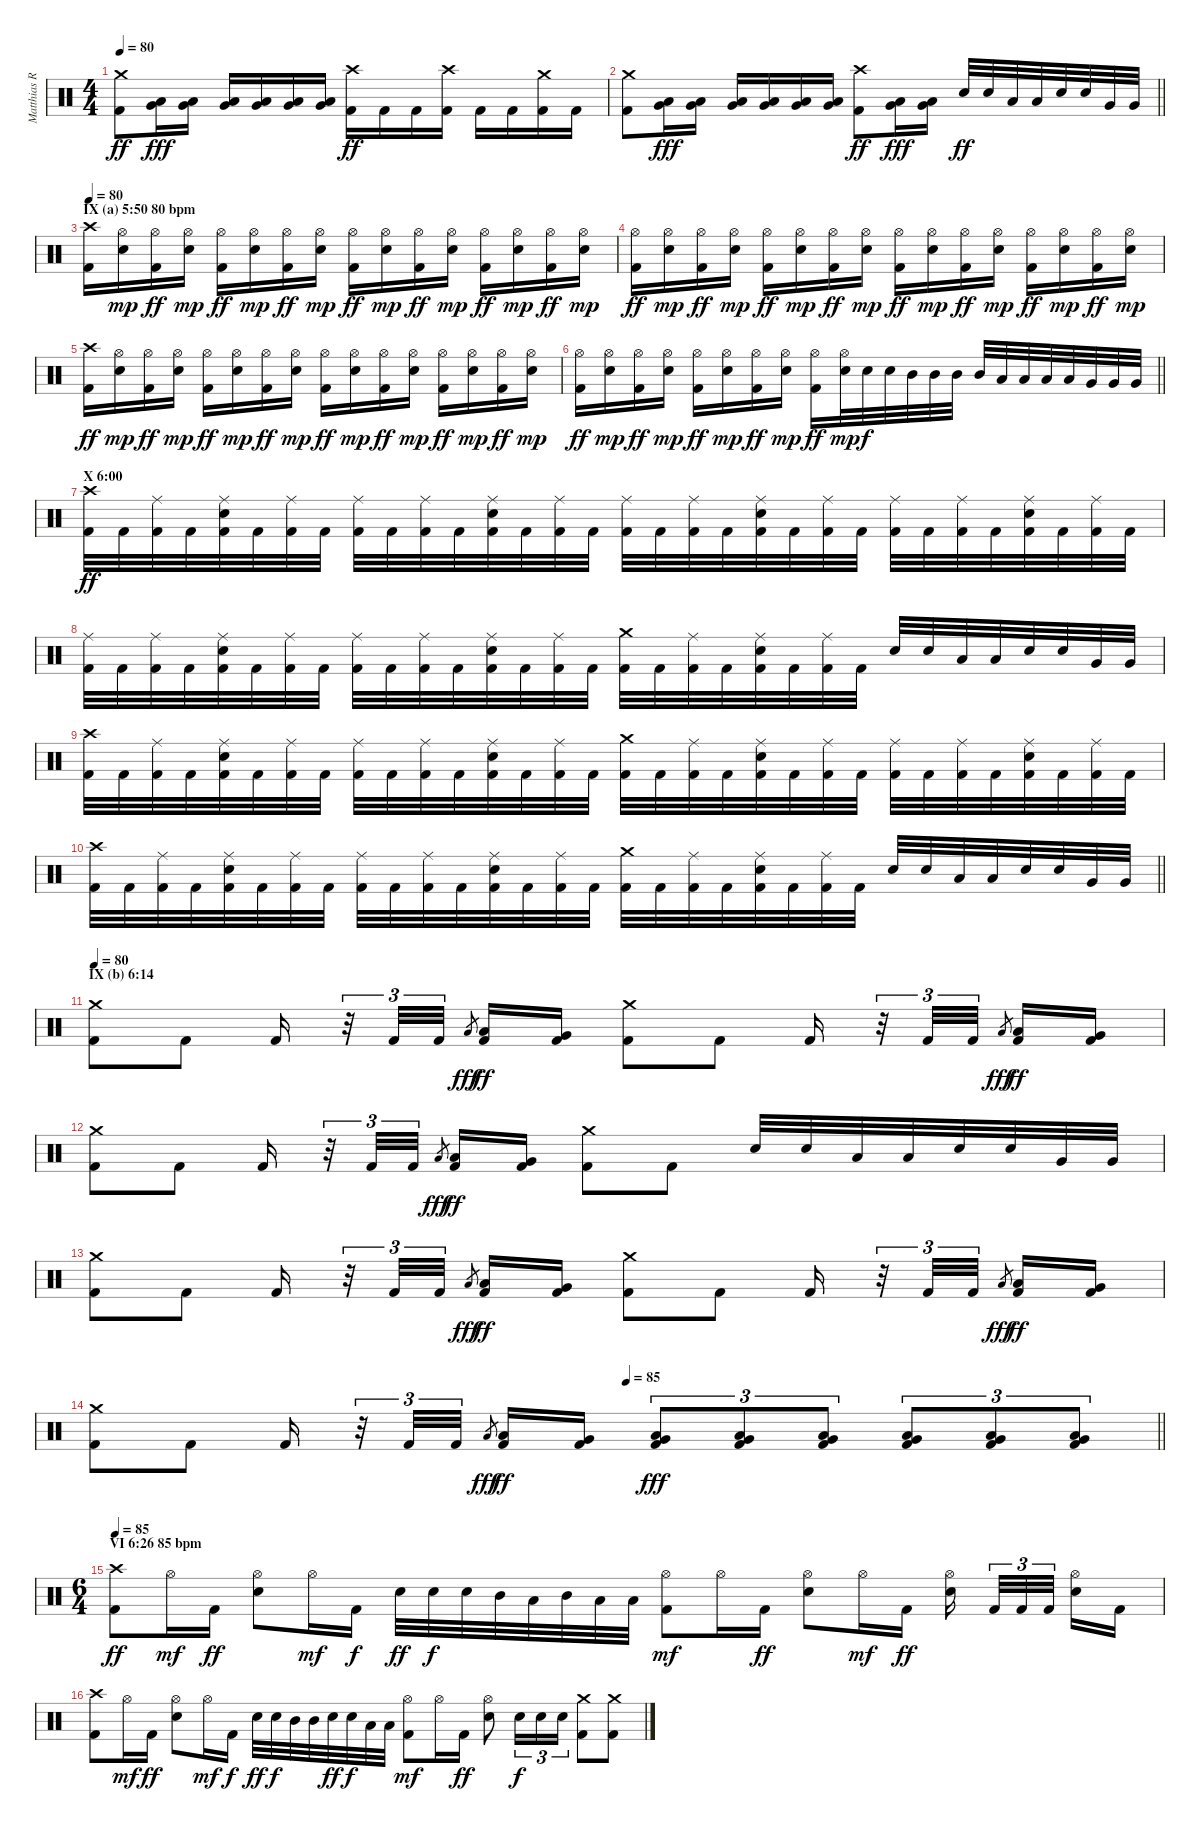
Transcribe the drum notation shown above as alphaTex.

\track ("Matthias R." "Matthias R") {instrument percussion}
\staff {score}
\articulation defaults
\ts (4 4)
\tempo 80
\clef neutral
\ks c
("Crash medium (hit)" "Kick (hit) 2").8{dy ff} ("Low Tom (hit)" "Very Low Tom (hit)").16{dy fff} ("Low Tom (hit)" "Very Low Tom (hit)").16 ("Low Tom (hit)" "Very Low Tom (hit)").16 ("Low Tom (hit)" "Very Low Tom (hit)").16 ("Low Tom (hit)" "Very Low Tom (hit)").16 ("Low Tom (hit)" "Very Low Tom (hit)").16 ("Crash high (hit)" "Kick (hit) 2").16{dy ff} "Kick (hit) 2".16 "Kick (hit) 2".16 ("Crash high (hit)" "Kick (hit) 2").16 "Kick (hit) 2".16 "Kick (hit) 2".16 ("Crash medium (hit)" "Kick (hit) 2").16 "Kick (hit) 2".16 |
\barLineRight lightlight
("Crash medium (hit)" "Kick (hit) 2").8 ("Low Tom (hit)" "Very Low Tom (hit)").16{dy fff} ("Low Tom (hit)" "Very Low Tom (hit)").16 ("Low Tom (hit)" "Very Low Tom (hit)").16 ("Low Tom (hit)" "Very Low Tom (hit)").16 ("Low Tom (hit)" "Very Low Tom (hit)").16 ("Low Tom (hit)" "Very Low Tom (hit)").16 ("Crash high (hit)" "Kick (hit) 2").8{dy ff} ("Low Tom (hit)" "Very Low Tom (hit)").16{dy fff} ("Low Tom (hit)" "Very Low Tom (hit)").16 "Electric Snare (hit)".32{dy ff} "Electric Snare (hit)".32 "Low Tom (hit)".32 "Low Tom (hit)".32 "Electric Snare (hit)".32 "Electric Snare (hit)".32 "Very Low Tom (hit)".32 "Very Low Tom (hit)".32 |
\section ("" "IX (a) 5:50 80 bpm")
\tempo 80
("Crash high (hit)" "Kick (hit) 2").16 ("Hi-Hat (open)" "Electric Snare (hit)").16{dy mp} ("Hi-Hat (open)" "Kick (hit) 2").16{dy ff} ("Hi-Hat (open)" "Electric Snare (hit)").16{dy mp} ("Hi-Hat (open)" "Kick (hit) 2").16{dy ff} ("Hi-Hat (open)" "Electric Snare (hit)").16{dy mp} ("Hi-Hat (open)" "Kick (hit) 2").16{dy ff} ("Hi-Hat (open)" "Electric Snare (hit)").16{dy mp} ("Hi-Hat (open)" "Kick (hit) 2").16{dy ff} ("Hi-Hat (open)" "Electric Snare (hit)").16{dy mp} ("Hi-Hat (open)" "Kick (hit) 2").16{dy ff} ("Hi-Hat (open)" "Electric Snare (hit)").16{dy mp} ("Hi-Hat (open)" "Kick (hit) 2").16{dy ff} ("Hi-Hat (open)" "Electric Snare (hit)").16{dy mp} ("Hi-Hat (open)" "Kick (hit) 2").16{dy ff} ("Hi-Hat (open)" "Electric Snare (hit)").16{dy mp} |
("Hi-Hat (open)" "Kick (hit) 2").16{dy ff} ("Hi-Hat (open)" "Electric Snare (hit)").16{dy mp} ("Hi-Hat (open)" "Kick (hit) 2").16{dy ff} ("Hi-Hat (open)" "Electric Snare (hit)").16{dy mp} ("Hi-Hat (open)" "Kick (hit) 2").16{dy ff} ("Hi-Hat (open)" "Electric Snare (hit)").16{dy mp} ("Hi-Hat (open)" "Kick (hit) 2").16{dy ff} ("Hi-Hat (open)" "Electric Snare (hit)").16{dy mp} ("Hi-Hat (open)" "Kick (hit) 2").16{dy ff} ("Hi-Hat (open)" "Electric Snare (hit)").16{dy mp} ("Hi-Hat (open)" "Kick (hit) 2").16{dy ff} ("Hi-Hat (open)" "Electric Snare (hit)").16{dy mp} ("Hi-Hat (open)" "Kick (hit) 2").16{dy ff} ("Hi-Hat (open)" "Electric Snare (hit)").16{dy mp} ("Hi-Hat (open)" "Kick (hit) 2").16{dy ff} ("Hi-Hat (open)" "Electric Snare (hit)").16{dy mp} |
("Crash high (hit)" "Kick (hit) 2").16{dy ff} ("Hi-Hat (open)" "Electric Snare (hit)").16{dy mp} ("Hi-Hat (open)" "Kick (hit) 2").16{dy ff} ("Hi-Hat (open)" "Electric Snare (hit)").16{dy mp} ("Hi-Hat (open)" "Kick (hit) 2").16{dy ff} ("Hi-Hat (open)" "Electric Snare (hit)").16{dy mp} ("Hi-Hat (open)" "Kick (hit) 2").16{dy ff} ("Hi-Hat (open)" "Electric Snare (hit)").16{dy mp} ("Hi-Hat (open)" "Kick (hit) 2").16{dy ff} ("Hi-Hat (open)" "Electric Snare (hit)").16{dy mp} ("Hi-Hat (open)" "Kick (hit) 2").16{dy ff} ("Hi-Hat (open)" "Electric Snare (hit)").16{dy mp} ("Hi-Hat (open)" "Kick (hit) 2").16{dy ff} ("Hi-Hat (open)" "Electric Snare (hit)").16{dy mp} ("Hi-Hat (open)" "Kick (hit) 2").16{dy ff} ("Hi-Hat (open)" "Electric Snare (hit)").16{dy mp} |
\barLineRight lightlight
("Hi-Hat (open)" "Kick (hit) 2").16{dy ff} ("Hi-Hat (open)" "Electric Snare (hit)").16{dy mp} ("Hi-Hat (open)" "Kick (hit) 2").16{dy ff} ("Hi-Hat (open)" "Electric Snare (hit)").16{dy mp} ("Hi-Hat (open)" "Kick (hit) 2").16{dy ff} ("Hi-Hat (open)" "Electric Snare (hit)").16{dy mp} ("Hi-Hat (open)" "Kick (hit) 2").16{dy ff} ("Hi-Hat (open)" "Electric Snare (hit)").16{dy mp} ("Hi-Hat (open)" "Kick (hit) 2").16{dy ff} ("Hi-Hat (open)" "Electric Snare (hit)").32{dy mp} "Electric Snare (hit)".32{dy f} "Electric Snare (hit)".32 "Mid Tom (hit)".32 "Mid Tom (hit)".32 "Mid Tom (hit)".32 "Mid Tom (hit)".32 "Low Tom (hit)".32 "Low Tom (hit)".32 "Low Tom (hit)".32 "Low Tom (hit)".32 "Very Low Tom (hit)".32 "Very Low Tom (hit)".32 "Very Low Tom (hit)".32 |
\section ("" "X 6:00")
("Crash high (hit)" "Kick (hit) 2").32{dy ff} "Kick (hit) 2".32 ("Ride (middle)" "Kick (hit) 2").32 "Kick (hit) 2".32 ("Ride (middle)" "Electric Snare (hit)" "Kick (hit) 2").32 "Kick (hit) 2".32 ("Ride (middle)" "Kick (hit) 2").32 "Kick (hit) 2".32 ("Ride (middle)" "Kick (hit) 2").32 "Kick (hit) 2".32 ("Ride (middle)" "Kick (hit) 2").32 "Kick (hit) 2".32 ("Ride (middle)" "Electric Snare (hit)" "Kick (hit) 2").32 "Kick (hit) 2".32 ("Ride (middle)" "Kick (hit) 2").32 "Kick (hit) 2".32 ("Ride (middle)" "Kick (hit) 2").32 "Kick (hit) 2".32 ("Ride (middle)" "Kick (hit) 2").32 "Kick (hit) 2".32 ("Ride (middle)" "Electric Snare (hit)" "Kick (hit) 2").32 "Kick (hit) 2".32 ("Ride (middle)" "Kick (hit) 2").32 "Kick (hit) 2".32 ("Ride (middle)" "Kick (hit) 2").32 "Kick (hit) 2".32 ("Ride (middle)" "Kick (hit) 2").32 "Kick (hit) 2".32 ("Ride (middle)" "Electric Snare (hit)" "Kick (hit) 2").32 "Kick (hit) 2".32 ("Ride (middle)" "Kick (hit) 2").32 "Kick (hit) 2".32 |
("Ride (middle)" "Kick (hit) 2").32 "Kick (hit) 2".32 ("Ride (middle)" "Kick (hit) 2").32 "Kick (hit) 2".32 ("Ride (middle)" "Electric Snare (hit)" "Kick (hit) 2").32 "Kick (hit) 2".32 ("Ride (middle)" "Kick (hit) 2").32 "Kick (hit) 2".32 ("Ride (middle)" "Kick (hit) 2").32 "Kick (hit) 2".32 ("Ride (middle)" "Kick (hit) 2").32 "Kick (hit) 2".32 ("Ride (middle)" "Electric Snare (hit)" "Kick (hit) 2").32 "Kick (hit) 2".32 ("Ride (middle)" "Kick (hit) 2").32 "Kick (hit) 2".32 ("Crash medium (hit)" "Kick (hit) 2").32 "Kick (hit) 2".32 ("Ride (middle)" "Kick (hit) 2").32 "Kick (hit) 2".32 ("Ride (middle)" "Electric Snare (hit)" "Kick (hit) 2").32 "Kick (hit) 2".32 ("Ride (middle)" "Kick (hit) 2").32 "Kick (hit) 2".32 "Electric Snare (hit)".32 "Electric Snare (hit)".32 "Low Tom (hit)".32 "Low Tom (hit)".32 "Electric Snare (hit)".32 "Electric Snare (hit)".32 "Very Low Tom (hit)".32 "Very Low Tom (hit)".32 |
("Crash high (hit)" "Kick (hit) 2").32 "Kick (hit) 2".32 ("Ride (middle)" "Kick (hit) 2").32 "Kick (hit) 2".32 ("Ride (middle)" "Electric Snare (hit)" "Kick (hit) 2").32 "Kick (hit) 2".32 ("Ride (middle)" "Kick (hit) 2").32 "Kick (hit) 2".32 ("Ride (middle)" "Kick (hit) 2").32 "Kick (hit) 2".32 ("Ride (middle)" "Kick (hit) 2").32 "Kick (hit) 2".32 ("Ride (middle)" "Electric Snare (hit)" "Kick (hit) 2").32 "Kick (hit) 2".32 ("Ride (middle)" "Kick (hit) 2").32 "Kick (hit) 2".32 ("Crash medium (hit)" "Kick (hit) 2").32 "Kick (hit) 2".32 ("Ride (middle)" "Kick (hit) 2").32 "Kick (hit) 2".32 ("Ride (middle)" "Electric Snare (hit)" "Kick (hit) 2").32 "Kick (hit) 2".32 ("Ride (middle)" "Kick (hit) 2").32 "Kick (hit) 2".32 ("Ride (middle)" "Kick (hit) 2").32 "Kick (hit) 2".32 ("Ride (middle)" "Kick (hit) 2").32 "Kick (hit) 2".32 ("Ride (middle)" "Electric Snare (hit)" "Kick (hit) 2").32 "Kick (hit) 2".32 ("Ride (middle)" "Kick (hit) 2").32 "Kick (hit) 2".32 |
\barLineRight lightlight
("Crash high (hit)" "Kick (hit) 2").32 "Kick (hit) 2".32 ("Ride (middle)" "Kick (hit) 2").32 "Kick (hit) 2".32 ("Ride (middle)" "Electric Snare (hit)" "Kick (hit) 2").32 "Kick (hit) 2".32 ("Ride (middle)" "Kick (hit) 2").32 "Kick (hit) 2".32 ("Ride (middle)" "Kick (hit) 2").32 "Kick (hit) 2".32 ("Ride (middle)" "Kick (hit) 2").32 "Kick (hit) 2".32 ("Ride (middle)" "Electric Snare (hit)" "Kick (hit) 2").32 "Kick (hit) 2".32 ("Ride (middle)" "Kick (hit) 2").32 "Kick (hit) 2".32 ("Crash medium (hit)" "Kick (hit) 2").32 "Kick (hit) 2".32 ("Ride (middle)" "Kick (hit) 2").32 "Kick (hit) 2".32 ("Ride (middle)" "Electric Snare (hit)" "Kick (hit) 2").32 "Kick (hit) 2".32 ("Ride (middle)" "Kick (hit) 2").32 "Kick (hit) 2".32 "Electric Snare (hit)".32 "Electric Snare (hit)".32 "Low Tom (hit)".32 "Low Tom (hit)".32 "Electric Snare (hit)".32 "Electric Snare (hit)".32 "Very Low Tom (hit)".32 "Very Low Tom (hit)".32 |
\section ("" "IX (b) 6:14")
\tempo 80
("Crash medium (hit)" "Kick (hit) 2").8 "Kick (hit) 2".8 "Kick (hit) 2".16 r.32{tu (3 2)} "Kick (hit) 2".32{tu (3 2)} "Kick (hit) 2".32{tu (3 2)} "Low Tom (hit)".8{gr dy fff beam splitsecondary} ("Low Tom (hit)" "Kick (hit) 2").16{dy ff} ("Very Low Tom (hit)" "Kick (hit) 2").16 ("Crash medium (hit)" "Kick (hit) 2").8 "Kick (hit) 2".8 "Kick (hit) 2".16 r.32{tu (3 2)} "Kick (hit) 2".32{tu (3 2)} "Kick (hit) 2".32{tu (3 2)} "Low Tom (hit)".8{gr dy fff beam splitsecondary} ("Low Tom (hit)" "Kick (hit) 2").16{dy ff} ("Very Low Tom (hit)" "Kick (hit) 2").16 |
("Crash medium (hit)" "Kick (hit) 2").8 "Kick (hit) 2".8 "Kick (hit) 2".16 r.32{tu (3 2)} "Kick (hit) 2".32{tu (3 2)} "Kick (hit) 2".32{tu (3 2)} "Low Tom (hit)".8{gr dy fff beam splitsecondary} ("Low Tom (hit)" "Kick (hit) 2").16{dy ff} ("Very Low Tom (hit)" "Kick (hit) 2").16 ("Crash medium (hit)" "Kick (hit) 2").8 "Kick (hit) 2".8 "Electric Snare (hit)".32 "Electric Snare (hit)".32 "Low Tom (hit)".32 "Low Tom (hit)".32 "Electric Snare (hit)".32 "Electric Snare (hit)".32 "Very Low Tom (hit)".32 "Very Low Tom (hit)".32 |
("Crash medium (hit)" "Kick (hit) 2").8 "Kick (hit) 2".8 "Kick (hit) 2".16 r.32{tu (3 2)} "Kick (hit) 2".32{tu (3 2)} "Kick (hit) 2".32{tu (3 2)} "Low Tom (hit)".8{gr dy fff beam splitsecondary} ("Low Tom (hit)" "Kick (hit) 2").16{dy ff} ("Very Low Tom (hit)" "Kick (hit) 2").16 ("Crash medium (hit)" "Kick (hit) 2").8 "Kick (hit) 2".8 "Kick (hit) 2".16 r.32{tu (3 2)} "Kick (hit) 2".32{tu (3 2)} "Kick (hit) 2".32{tu (3 2)} "Low Tom (hit)".8{gr dy fff beam splitsecondary} ("Low Tom (hit)" "Kick (hit) 2").16{dy ff} ("Very Low Tom (hit)" "Kick (hit) 2").16 |
\tempo (85 0.5)
\barLineRight lightlight
("Crash medium (hit)" "Kick (hit) 2").8 "Kick (hit) 2".8 "Kick (hit) 2".16 r.32{tu (3 2)} "Kick (hit) 2".32{tu (3 2)} "Kick (hit) 2".32{tu (3 2)} "Low Tom (hit)".8{gr dy fff beam splitsecondary} ("Low Tom (hit)" "Kick (hit) 2").16{dy ff} ("Very Low Tom (hit)" "Kick (hit) 2").16 ("Low Tom (hit)" "Very Low Tom (hit)" "Kick (hit) 2").8{tu (3 2) dy fff} ("Low Tom (hit)" "Very Low Tom (hit)" "Kick (hit) 2").8{tu (3 2)} ("Low Tom (hit)" "Very Low Tom (hit)" "Kick (hit) 2").8{tu (3 2)} ("Low Floor Tom (hit)" "Very Low Tom (hit)" "Kick (hit) 2").8{tu (3 2)} ("Low Floor Tom (hit)" "Very Low Tom (hit)" "Kick (hit) 2").8{tu (3 2)} ("Low Floor Tom (hit)" "Very Low Tom (hit)" "Kick (hit) 2").8{tu (3 2)} |
\ts (6 4)
\section ("" "VI 6:26 85 bpm")
\tempo 85
("Crash high (hit)" "Kick (hit) 2").8{dy ff} "Hi-Hat (open)".16{dy mf} "Kick (hit) 2".16{dy ff} ("Hi-Hat (open)" "Electric Snare (hit)").8 "Hi-Hat (open)".16{dy mf} "Kick (hit) 2".16{dy f} "Electric Snare (hit)".32{dy ff} "Electric Snare (hit)".32{dy f} "Electric Snare (hit)".32 "Mid Tom (hit)".32 "Low Tom (hit)".32 "Mid Tom (hit)".32 "Low Tom (hit)".32 "Low Tom (hit)".32 ("Hi-Hat (open)" "Kick (hit) 2").8{dy mf} "Hi-Hat (open)".16 "Kick (hit) 2".16{dy ff} ("Hi-Hat (open)" "Electric Snare (hit)").8 "Hi-Hat (open)".16{dy mf} "Kick (hit) 2".16{dy ff} ("Hi-Hat (open)" "Electric Snare (hit)").16{beam splitsecondary} "Kick (hit) 2".32{tu (3 2)} "Kick (hit) 2".32{tu (3 2)} "Kick (hit) 2".32{tu (3 2) beam splitsecondary} ("Hi-Hat (open)" "Electric Snare (hit)").16 "Kick (hit) 2".16 |
("Crash high (hit)" "Kick (hit) 2").8 "Hi-Hat (open)".16{dy mf} "Kick (hit) 2".16{dy ff} ("Hi-Hat (open)" "Electric Snare (hit)").8 "Hi-Hat (open)".16{dy mf} "Kick (hit) 2".16{dy f} "Electric Snare (hit)".32{dy ff} "Electric Snare (hit)".32{dy f} "Mid Tom (hit)".32 "Mid Tom (hit)".32 "Electric Snare (hit)".32{dy ff} "Electric Snare (hit)".32{dy f} "Low Tom (hit)".32 "Low Tom (hit)".32 ("Hi-Hat (open)" "Kick (hit) 2").8{dy mf} "Hi-Hat (open)".16 "Kick (hit) 2".16{dy ff} ("Hi-Hat (open)" "Electric Snare (hit)").8 "Electric Snare (hit)".16{tu (3 2) dy f} "Electric Snare (hit)".16{tu (3 2)} "Electric Snare (hit)".16{tu (3 2)} ("Crash medium (hit)" "Kick (hit) 2").8 ("Crash medium (hit)" "Kick (hit) 2").8
